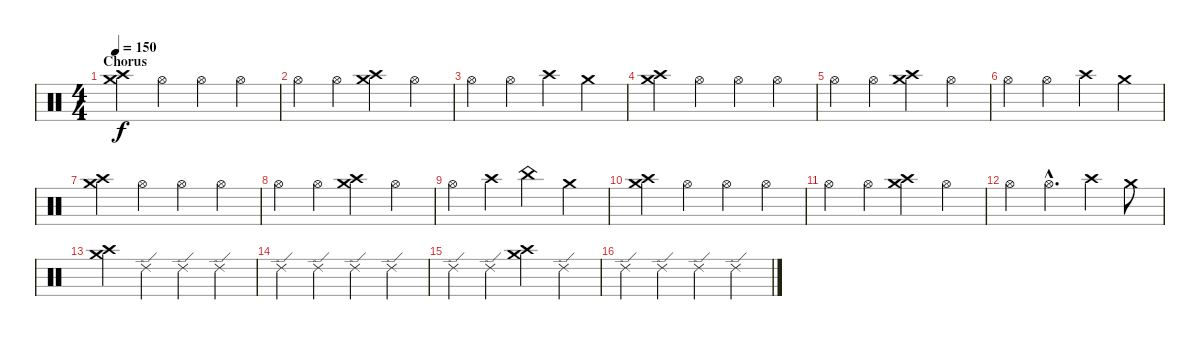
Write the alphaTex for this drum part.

\track "" {instrument percussion}
\staff {score}
\articulation defaults
\ts (4 4)
\section ("" "Chorus")
\tempo 150
\clef neutral
\ks c
("Crash medium (hit)" "Crash high (hit)").4{dy f} "Hi-Hat (open)".4 "Hi-Hat (open)".4 "Hi-Hat (open)".4 |
"Hi-Hat (open)".4 "Hi-Hat (open)".4 ("Crash medium (hit)" "Crash high (hit)").4 "Hi-Hat (open)".4 |
"Hi-Hat (open)".4 "Hi-Hat (open)".4 "Crash high (hit)".4 "Crash medium (hit)".4 |
("Crash medium (hit)" "Crash high (hit)").4 "Hi-Hat (open)".4 "Hi-Hat (open)".4 "Hi-Hat (open)".4 |
"Hi-Hat (open)".4 "Hi-Hat (open)".4 ("Crash medium (hit)" "Crash high (hit)").4 "Hi-Hat (open)".4 |
"Hi-Hat (open)".4 "Hi-Hat (open)".4 "Crash high (hit)".4 "Crash medium (hit)".4 |
("Crash medium (hit)" "Crash high (hit)").4 "Hi-Hat (open)".4 "Hi-Hat (open)".4 "Hi-Hat (open)".4 |
"Hi-Hat (open)".4 "Hi-Hat (open)".4 ("Crash medium (hit)" "Crash high (hit)").4 "Hi-Hat (open)".4 |
"Hi-Hat (open)".4 "Crash high (hit)".4 "China (hit)".4 "Crash medium (hit)".4 |
("Crash medium (hit)" "Crash high (hit)").4 "Hi-Hat (open)".4 "Hi-Hat (open)".4 "Hi-Hat (open)".4 |
"Hi-Hat (open)".4 "Hi-Hat (open)".4 ("Crash medium (hit)" "Crash high (hit)").4 "Hi-Hat (open)".4 |
"Hi-Hat (open)".4 "Hi-Hat (open)"{hac}.4{d} "Crash high (hit)".4 "Crash medium (hit)".8 |
("Crash medium (hit)" "Crash high (hit)").4 "Ride (edge) 2".4 "Ride (edge) 2".4 "Ride (edge) 2".4 |
"Ride (edge) 2".4 "Ride (edge) 2".4 "Ride (edge) 2".4 "Ride (edge) 2".4 |
"Ride (edge) 2".4 "Ride (edge) 2".4 ("Crash medium (hit)" "Crash high (hit)").4 "Ride (edge) 2".4 |
"Ride (edge) 2".4 "Ride (edge) 2".4 "Ride (edge) 2".4 "Ride (edge) 2".4
